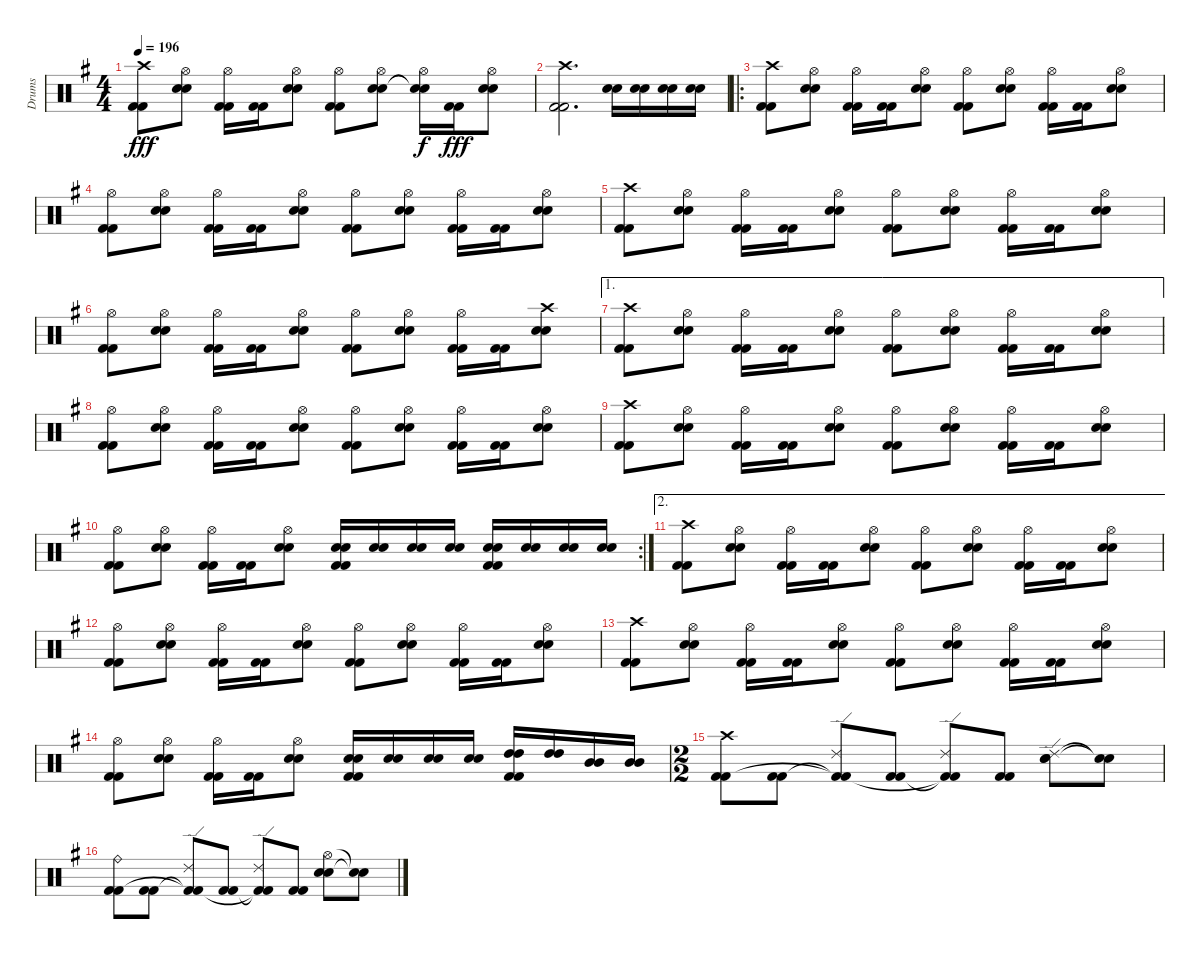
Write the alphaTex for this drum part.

\track ("Drums" "Drums") {instrument percussion}
\staff {score}
\articulation defaults
\ts (4 4)
\tempo 196
\clef neutral
\ks g
("Crash high (hit)" "Kick (hit) 2" "Kick (hit) 2").8{dy fff} ("Hi-Hat (open)" "Snare (hit) 2" "Snare (hit) 2").8 ("Hi-Hat (open)" "Kick (hit) 2" "Kick (hit) 2").16 ("Kick (hit) 2" "Kick (hit) 2").16 ("Hi-Hat (open)" "Snare (hit) 2" "Snare (hit) 2").8 ("Hi-Hat (open)" "Kick (hit) 2" "Kick (hit) 2").8 ("Hi-Hat (open)" "Snare (hit) 2" "Snare (hit) 2").8 ("Hi-Hat (open)" "Snare (hit) 2"{t} "Snare (hit) 2"{t}).16{dy f} ("Kick (hit) 2" "Kick (hit) 2").16{dy fff} ("Hi-Hat (open)" "Snare (hit) 2" "Snare (hit) 2").8 |
("Crash high (hit)" "Kick (hit) 2" "Kick (hit) 2").2{d} ("Snare (hit) 2" "Snare (hit) 2").16 ("Snare (hit) 2" "Snare (hit) 2").16 ("Snare (hit) 2" "Snare (hit) 2").16 ("Snare (hit) 2" "Snare (hit) 2").16 |
\ro
("Crash high (hit)" "Kick (hit) 2" "Kick (hit) 2").8 ("Hi-Hat (open)" "Snare (hit) 2" "Snare (hit) 2").8 ("Hi-Hat (open)" "Kick (hit) 2" "Kick (hit) 2").16 ("Kick (hit) 2" "Kick (hit) 2").16 ("Hi-Hat (open)" "Snare (hit) 2" "Snare (hit) 2").8 ("Hi-Hat (open)" "Kick (hit) 2" "Kick (hit) 2").8 ("Hi-Hat (open)" "Snare (hit) 2" "Snare (hit) 2").8 ("Hi-Hat (open)" "Kick (hit) 2" "Kick (hit) 2").16 ("Kick (hit) 2" "Kick (hit) 2").16 ("Hi-Hat (open)" "Snare (hit) 2" "Snare (hit) 2").8 |
("Hi-Hat (open)" "Kick (hit) 2" "Kick (hit) 2").8 ("Hi-Hat (open)" "Snare (hit) 2" "Snare (hit) 2").8 ("Hi-Hat (open)" "Kick (hit) 2" "Kick (hit) 2").16 ("Kick (hit) 2" "Kick (hit) 2").16 ("Hi-Hat (open)" "Snare (hit) 2" "Snare (hit) 2").8 ("Hi-Hat (open)" "Kick (hit) 2" "Kick (hit) 2").8 ("Hi-Hat (open)" "Snare (hit) 2" "Snare (hit) 2").8 ("Hi-Hat (open)" "Kick (hit) 2" "Kick (hit) 2").16 ("Kick (hit) 2" "Kick (hit) 2").16 ("Hi-Hat (open)" "Snare (hit) 2" "Snare (hit) 2").8 |
("Crash high (hit)" "Kick (hit) 2" "Kick (hit) 2").8 ("Hi-Hat (open)" "Snare (hit) 2" "Snare (hit) 2").8 ("Hi-Hat (open)" "Kick (hit) 2" "Kick (hit) 2").16 ("Kick (hit) 2" "Kick (hit) 2").16 ("Hi-Hat (open)" "Snare (hit) 2" "Snare (hit) 2").8 ("Hi-Hat (open)" "Kick (hit) 2" "Kick (hit) 2").8 ("Hi-Hat (open)" "Snare (hit) 2" "Snare (hit) 2").8 ("Hi-Hat (open)" "Kick (hit) 2" "Kick (hit) 2").16 ("Kick (hit) 2" "Kick (hit) 2").16 ("Hi-Hat (open)" "Snare (hit) 2" "Snare (hit) 2").8 |
("Hi-Hat (open)" "Kick (hit) 2" "Kick (hit) 2").8 ("Hi-Hat (open)" "Snare (hit) 2" "Snare (hit) 2").8 ("Hi-Hat (open)" "Kick (hit) 2" "Kick (hit) 2").16 ("Kick (hit) 2" "Kick (hit) 2").16 ("Hi-Hat (open)" "Snare (hit) 2" "Snare (hit) 2").8 ("Hi-Hat (open)" "Kick (hit) 2" "Kick (hit) 2").8 ("Hi-Hat (open)" "Snare (hit) 2" "Snare (hit) 2").8 ("Hi-Hat (open)" "Kick (hit) 2" "Kick (hit) 2").16 ("Kick (hit) 2" "Kick (hit) 2").16 ("Crash high (hit)" "Snare (hit) 2" "Snare (hit) 2").8 |
\ae 1
("Crash high (hit)" "Kick (hit) 2" "Kick (hit) 2").8 ("Hi-Hat (open)" "Snare (hit) 2" "Snare (hit) 2").8 ("Hi-Hat (open)" "Kick (hit) 2" "Kick (hit) 2").16 ("Kick (hit) 2" "Kick (hit) 2").16 ("Hi-Hat (open)" "Snare (hit) 2" "Snare (hit) 2").8 ("Hi-Hat (open)" "Kick (hit) 2" "Kick (hit) 2").8 ("Hi-Hat (open)" "Snare (hit) 2" "Snare (hit) 2").8 ("Hi-Hat (open)" "Kick (hit) 2" "Kick (hit) 2").16 ("Kick (hit) 2" "Kick (hit) 2").16 ("Hi-Hat (open)" "Snare (hit) 2" "Snare (hit) 2").8 |
("Hi-Hat (open)" "Kick (hit) 2" "Kick (hit) 2").8 ("Hi-Hat (open)" "Snare (hit) 2" "Snare (hit) 2").8 ("Hi-Hat (open)" "Kick (hit) 2" "Kick (hit) 2").16 ("Kick (hit) 2" "Kick (hit) 2").16 ("Hi-Hat (open)" "Snare (hit) 2" "Snare (hit) 2").8 ("Hi-Hat (open)" "Kick (hit) 2" "Kick (hit) 2").8 ("Hi-Hat (open)" "Snare (hit) 2" "Snare (hit) 2").8 ("Hi-Hat (open)" "Kick (hit) 2" "Kick (hit) 2").16 ("Kick (hit) 2" "Kick (hit) 2").16 ("Hi-Hat (open)" "Snare (hit) 2" "Snare (hit) 2").8 |
("Crash high (hit)" "Kick (hit) 2" "Kick (hit) 2").8 ("Hi-Hat (open)" "Snare (hit) 2" "Snare (hit) 2").8 ("Hi-Hat (open)" "Kick (hit) 2" "Kick (hit) 2").16 ("Kick (hit) 2" "Kick (hit) 2").16 ("Hi-Hat (open)" "Snare (hit) 2" "Snare (hit) 2").8 ("Hi-Hat (open)" "Kick (hit) 2" "Kick (hit) 2").8 ("Hi-Hat (open)" "Snare (hit) 2" "Snare (hit) 2").8 ("Hi-Hat (open)" "Kick (hit) 2" "Kick (hit) 2").16 ("Kick (hit) 2" "Kick (hit) 2").16 ("Hi-Hat (open)" "Snare (hit) 2" "Snare (hit) 2").8 |
\rc 2
("Hi-Hat (open)" "Kick (hit) 2" "Kick (hit) 2").8 ("Hi-Hat (open)" "Snare (hit) 2" "Snare (hit) 2").8 ("Hi-Hat (open)" "Kick (hit) 2" "Kick (hit) 2").16 ("Kick (hit) 2" "Kick (hit) 2").16 ("Hi-Hat (open)" "Snare (hit) 2" "Snare (hit) 2").8 ("Snare (hit) 2" "Snare (hit) 2" "Kick (hit) 2" "Kick (hit) 2").16 ("Snare (hit) 2" "Snare (hit) 2").16 ("Snare (hit) 2" "Snare (hit) 2").16 ("Snare (hit) 2" "Snare (hit) 2").16 ("Snare (hit) 2" "Snare (hit) 2" "Kick (hit) 2" "Kick (hit) 2").16 ("Snare (hit) 2" "Snare (hit) 2").16 ("Snare (hit) 2" "Snare (hit) 2").16 ("Snare (hit) 2" "Snare (hit) 2").16 |
\ae 2
("Crash high (hit)" "Kick (hit) 2" "Kick (hit) 2").8 ("Hi-Hat (open)" "Snare (hit) 2" "Snare (hit) 2").8 ("Hi-Hat (open)" "Kick (hit) 2" "Kick (hit) 2").16 ("Kick (hit) 2" "Kick (hit) 2").16 ("Hi-Hat (open)" "Snare (hit) 2" "Snare (hit) 2").8 ("Hi-Hat (open)" "Kick (hit) 2" "Kick (hit) 2").8 ("Hi-Hat (open)" "Snare (hit) 2" "Snare (hit) 2").8 ("Hi-Hat (open)" "Kick (hit) 2" "Kick (hit) 2").16 ("Kick (hit) 2" "Kick (hit) 2").16 ("Hi-Hat (open)" "Snare (hit) 2" "Snare (hit) 2").8 |
("Hi-Hat (open)" "Kick (hit) 2" "Kick (hit) 2").8 ("Hi-Hat (open)" "Snare (hit) 2" "Snare (hit) 2").8 ("Hi-Hat (open)" "Kick (hit) 2" "Kick (hit) 2").16 ("Kick (hit) 2" "Kick (hit) 2").16 ("Hi-Hat (open)" "Snare (hit) 2" "Snare (hit) 2").8 ("Hi-Hat (open)" "Kick (hit) 2" "Kick (hit) 2").8 ("Hi-Hat (open)" "Snare (hit) 2" "Snare (hit) 2").8 ("Hi-Hat (open)" "Kick (hit) 2" "Kick (hit) 2").16 ("Kick (hit) 2" "Kick (hit) 2").16 ("Hi-Hat (open)" "Snare (hit) 2" "Snare (hit) 2").8 |
("Crash high (hit)" "Kick (hit) 2" "Kick (hit) 2").8 ("Hi-Hat (open)" "Snare (hit) 2" "Snare (hit) 2").8 ("Hi-Hat (open)" "Kick (hit) 2" "Kick (hit) 2").16 ("Kick (hit) 2" "Kick (hit) 2").16 ("Hi-Hat (open)" "Snare (hit) 2" "Snare (hit) 2").8 ("Hi-Hat (open)" "Kick (hit) 2" "Kick (hit) 2").8 ("Hi-Hat (open)" "Snare (hit) 2" "Snare (hit) 2").8 ("Hi-Hat (open)" "Kick (hit) 2" "Kick (hit) 2").16 ("Kick (hit) 2" "Kick (hit) 2").16 ("Hi-Hat (open)" "Snare (hit) 2" "Snare (hit) 2").8 |
("Hi-Hat (open)" "Kick (hit) 2" "Kick (hit) 2").8 ("Hi-Hat (open)" "Snare (hit) 2" "Snare (hit) 2").8 ("Hi-Hat (open)" "Kick (hit) 2" "Kick (hit) 2").16 ("Kick (hit) 2" "Kick (hit) 2").16 ("Hi-Hat (open)" "Snare (hit) 2" "Snare (hit) 2").8 ("Snare (hit) 2" "Snare (hit) 2" "Kick (hit) 2" "Kick (hit) 2").16 ("Snare (hit) 2" "Snare (hit) 2").16 ("Snare (hit) 2" "Snare (hit) 2").16 ("Snare (hit) 2" "Snare (hit) 2").16 ("High Tom (hit)" "High Tom (hit)" "Kick (hit) 2" "Kick (hit) 2").16 ("High Tom (hit)" "High Tom (hit)").16 ("Mid Tom (hit)" "Mid Tom (hit)").16 ("Mid Tom (hit)" "Mid Tom (hit)").16 |
\ts (2 2)
("Crash high (hit)" "Kick (hit) 2" "Kick (hit) 2").8 ("Kick (hit) 2" "Kick (hit) 2").8 ("Ride (edge) 2" "Kick (hit) 2"{t} "Kick (hit) 2"{t}).8 ("Kick (hit) 2" "Kick (hit) 2").8 ("Ride (edge) 2" "Kick (hit) 2"{t} "Kick (hit) 2"{t}).8 ("Kick (hit) 2" "Kick (hit) 2").8 ("Ride (edge) 2" "Snare (hit) 2" "Snare (hit) 2").8 ("Snare (hit) 2"{t} "Snare (hit) 2"{t}).8 |
("Ride (bell)" "Kick (hit) 2" "Kick (hit) 2").8 ("Kick (hit) 2" "Kick (hit) 2").8 ("Ride (edge) 2" "Kick (hit) 2"{t} "Kick (hit) 2"{t}).8 ("Kick (hit) 2" "Kick (hit) 2").8 ("Ride (edge) 2" "Kick (hit) 2"{t} "Kick (hit) 2"{t}).8 ("Kick (hit) 2" "Kick (hit) 2").8 ("Hi-Hat (open)" "Snare (hit) 2" "Snare (hit) 2").8 ("Snare (hit) 2"{t} "Snare (hit) 2"{t}).8
